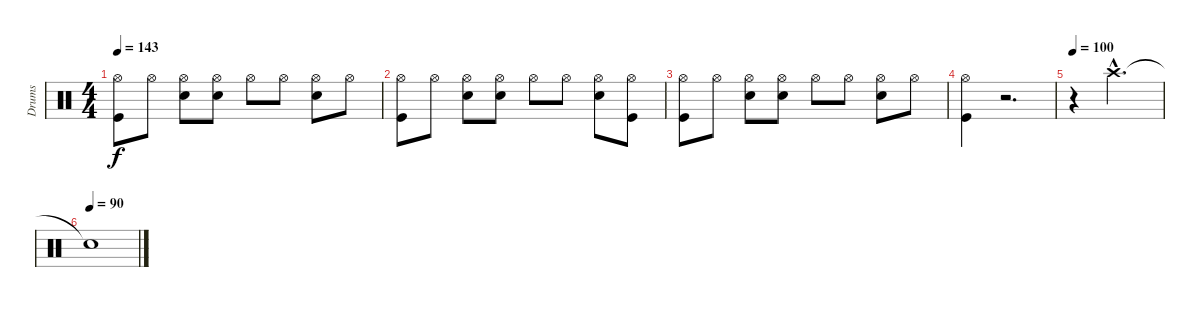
\track ("Drums" "Drums") {instrument percussion}
\staff {score}
\articulation defaults
\ts (4 4)
\tempo 143
\clef neutral
\ks c
("Kick (hit)" "Hi-Hat (open)").8{dy f} "Hi-Hat (open)".8 ("Hi-Hat (open)" "Snare (hit) 2").8 ("Hi-Hat (open)" "Snare (hit) 2").8 "Hi-Hat (open)".8 "Hi-Hat (open)".8 ("Hi-Hat (open)" "Snare (hit) 2").8 "Hi-Hat (open)".8 |
("Kick (hit)" "Hi-Hat (open)").8 "Hi-Hat (open)".8 ("Hi-Hat (open)" "Snare (hit) 2").8 ("Hi-Hat (open)" "Snare (hit) 2").8 "Hi-Hat (open)".8 "Hi-Hat (open)".8 ("Hi-Hat (open)" "Snare (hit) 2").8 ("Hi-Hat (open)" "Kick (hit)").8 |
("Kick (hit)" "Hi-Hat (open)").8 "Hi-Hat (open)".8 ("Hi-Hat (open)" "Snare (hit) 2").8 ("Hi-Hat (open)" "Snare (hit) 2").8 "Hi-Hat (open)".8 "Hi-Hat (open)".8 ("Hi-Hat (open)" "Snare (hit) 2").8 "Hi-Hat (open)".8 |
("Hi-Hat (open)" "Kick (hit)").4 r.2{d} |
\tempo 100
r.4 "Crash high (hit)"{hac}.2{d} |
\tempo (90)
"Snare (hit)"{t}.1
